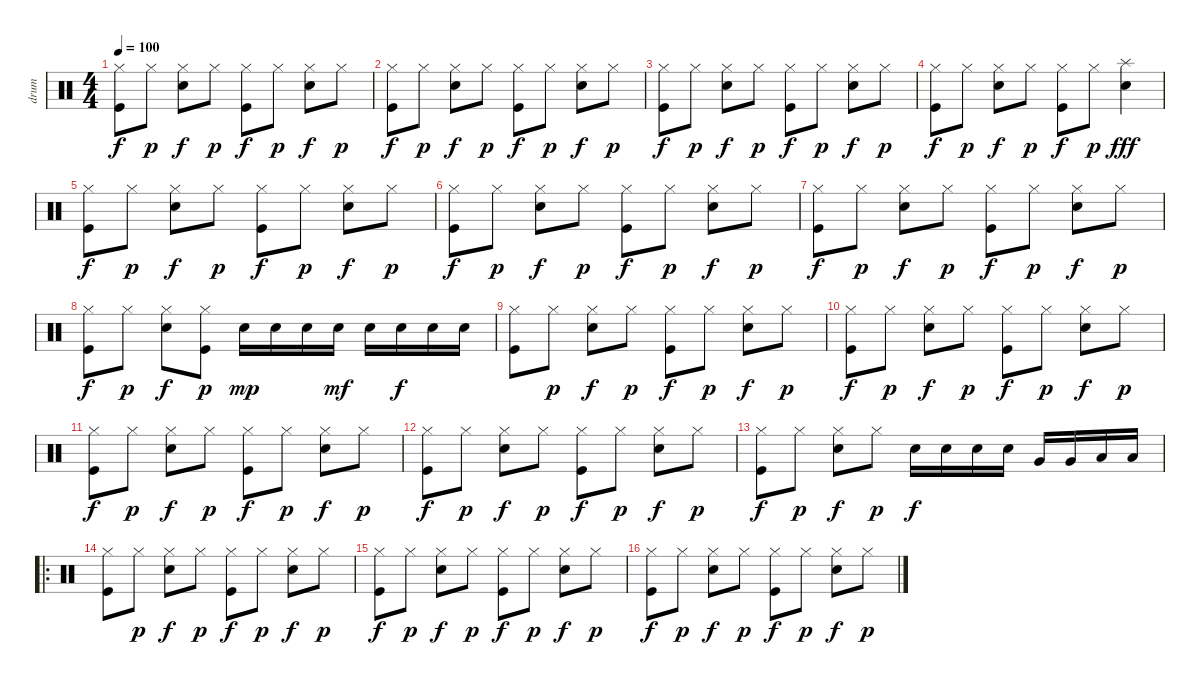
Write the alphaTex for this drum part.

\track ("drum" "drum") {instrument percussion}
\staff {score}
\articulation defaults
\ts (4 4)
\tempo 100
\clef neutral
\ks c
("Kick (hit)" "Hi-Hat (closed)").8{dy f} "Hi-Hat (closed)".8{dy p} ("Electric Snare (hit)" "Hi-Hat (closed)").8{dy f} "Hi-Hat (closed)".8{dy p} ("Kick (hit)" "Hi-Hat (closed)").8{dy f} "Hi-Hat (closed)".8{dy p} ("Electric Snare (hit)" "Hi-Hat (closed)").8{dy f} "Hi-Hat (closed)".8{dy p} |
("Kick (hit)" "Hi-Hat (closed)").8{dy f} "Hi-Hat (closed)".8{dy p} ("Electric Snare (hit)" "Hi-Hat (closed)").8{dy f} "Hi-Hat (closed)".8{dy p} ("Kick (hit)" "Hi-Hat (closed)").8{dy f} "Hi-Hat (closed)".8{dy p} ("Electric Snare (hit)" "Hi-Hat (closed)").8{dy f} "Hi-Hat (closed)".8{dy p} |
("Kick (hit)" "Hi-Hat (closed)").8{dy f} "Hi-Hat (closed)".8{dy p} ("Electric Snare (hit)" "Hi-Hat (closed)").8{dy f} "Hi-Hat (closed)".8{dy p} ("Kick (hit)" "Hi-Hat (closed)").8{dy f} "Hi-Hat (closed)".8{dy p} ("Electric Snare (hit)" "Hi-Hat (closed)").8{dy f} "Hi-Hat (closed)".8{dy p} |
("Kick (hit)" "Hi-Hat (closed)").8{dy f} "Hi-Hat (closed)".8{dy p} ("Electric Snare (hit)" "Hi-Hat (closed)").8{dy f} "Hi-Hat (closed)".8{dy p} ("Kick (hit)" "Hi-Hat (closed)").8{dy f} "Hi-Hat (closed)".8{dy p} ("Electric Snare (hit)" "Splash (hit)").4{dy fff} |
("Kick (hit)" "Hi-Hat (closed)").8{dy f} "Hi-Hat (closed)".8{dy p} ("Electric Snare (hit)" "Hi-Hat (closed)").8{dy f} "Hi-Hat (closed)".8{dy p} ("Kick (hit)" "Hi-Hat (closed)").8{dy f} "Hi-Hat (closed)".8{dy p} ("Electric Snare (hit)" "Hi-Hat (closed)").8{dy f} "Hi-Hat (closed)".8{dy p} |
("Kick (hit)" "Hi-Hat (closed)").8{dy f} "Hi-Hat (closed)".8{dy p} ("Electric Snare (hit)" "Hi-Hat (closed)").8{dy f} "Hi-Hat (closed)".8{dy p} ("Kick (hit)" "Hi-Hat (closed)").8{dy f} "Hi-Hat (closed)".8{dy p} ("Electric Snare (hit)" "Hi-Hat (closed)").8{dy f} "Hi-Hat (closed)".8{dy p} |
("Kick (hit)" "Hi-Hat (closed)").8{dy f} "Hi-Hat (closed)".8{dy p} ("Electric Snare (hit)" "Hi-Hat (closed)").8{dy f} "Hi-Hat (closed)".8{dy p} ("Kick (hit)" "Hi-Hat (closed)").8{dy f} "Hi-Hat (closed)".8{dy p} ("Electric Snare (hit)" "Hi-Hat (closed)").8{dy f} "Hi-Hat (closed)".8{dy p} |
("Kick (hit)" "Hi-Hat (closed)").8{dy f} "Hi-Hat (closed)".8{dy p} ("Electric Snare (hit)" "Hi-Hat (closed)").8{dy f} ("Kick (hit)" "Hi-Hat (closed)").8{dy p} "Electric Snare (hit)".16{dy mp} "Electric Snare (hit)".16 "Electric Snare (hit)".16 "Electric Snare (hit)".16{dy mf} "Electric Snare (hit)".16 "Electric Snare (hit)".16{dy f} "Electric Snare (hit)".16 "Electric Snare (hit)".16 |
("Kick (hit)" "Hi-Hat (closed)").8 "Hi-Hat (closed)".8{dy p} ("Electric Snare (hit)" "Hi-Hat (closed)").8{dy f} "Hi-Hat (closed)".8{dy p} ("Kick (hit)" "Hi-Hat (closed)").8{dy f} "Hi-Hat (closed)".8{dy p} ("Electric Snare (hit)" "Hi-Hat (closed)").8{dy f} "Hi-Hat (closed)".8{dy p} |
("Kick (hit)" "Hi-Hat (closed)").8{dy f} "Hi-Hat (closed)".8{dy p} ("Electric Snare (hit)" "Hi-Hat (closed)").8{dy f} "Hi-Hat (closed)".8{dy p} ("Kick (hit)" "Hi-Hat (closed)").8{dy f} "Hi-Hat (closed)".8{dy p} ("Electric Snare (hit)" "Hi-Hat (closed)").8{dy f} "Hi-Hat (closed)".8{dy p} |
("Kick (hit)" "Hi-Hat (closed)").8{dy f} "Hi-Hat (closed)".8{dy p} ("Electric Snare (hit)" "Hi-Hat (closed)").8{dy f} "Hi-Hat (closed)".8{dy p} ("Kick (hit)" "Hi-Hat (closed)").8{dy f} "Hi-Hat (closed)".8{dy p} ("Electric Snare (hit)" "Hi-Hat (closed)").8{dy f} "Hi-Hat (closed)".8{dy p} |
("Kick (hit)" "Hi-Hat (closed)").8{dy f} "Hi-Hat (closed)".8{dy p} ("Electric Snare (hit)" "Hi-Hat (closed)").8{dy f} "Hi-Hat (closed)".8{dy p} ("Kick (hit)" "Hi-Hat (closed)").8{dy f} "Hi-Hat (closed)".8{dy p} ("Electric Snare (hit)" "Hi-Hat (closed)").8{dy f} "Hi-Hat (closed)".8{dy p} |
("Kick (hit)" "Hi-Hat (closed)").8{dy f} "Hi-Hat (closed)".8{dy p} ("Electric Snare (hit)" "Hi-Hat (closed)").8{dy f} "Hi-Hat (closed)".8{dy p} "Electric Snare (hit)".16{dy f} "Electric Snare (hit)".16 "Electric Snare (hit)".16 "Electric Snare (hit)".16 "Very Low Tom (hit)".16 "Very Low Tom (hit)".16 "Low Floor Tom (hit)".16 "Low Floor Tom (hit)".16 |
\ro
("Kick (hit)" "Hi-Hat (closed)").8 "Hi-Hat (closed)".8{dy p} ("Electric Snare (hit)" "Hi-Hat (closed)").8{dy f} "Hi-Hat (closed)".8{dy p} ("Kick (hit)" "Hi-Hat (closed)").8{dy f} "Hi-Hat (closed)".8{dy p} ("Electric Snare (hit)" "Hi-Hat (closed)").8{dy f} "Hi-Hat (closed)".8{dy p} |
("Kick (hit)" "Hi-Hat (closed)").8{dy f} "Hi-Hat (closed)".8{dy p} ("Electric Snare (hit)" "Hi-Hat (closed)").8{dy f} "Hi-Hat (closed)".8{dy p} ("Kick (hit)" "Hi-Hat (closed)").8{dy f} "Hi-Hat (closed)".8{dy p} ("Electric Snare (hit)" "Hi-Hat (closed)").8{dy f} "Hi-Hat (closed)".8{dy p} |
("Kick (hit)" "Hi-Hat (closed)").8{dy f} "Hi-Hat (closed)".8{dy p} ("Electric Snare (hit)" "Hi-Hat (closed)").8{dy f} "Hi-Hat (closed)".8{dy p} ("Kick (hit)" "Hi-Hat (closed)").8{dy f} "Hi-Hat (closed)".8{dy p} ("Electric Snare (hit)" "Hi-Hat (closed)").8{dy f} "Hi-Hat (closed)".8{dy p}
